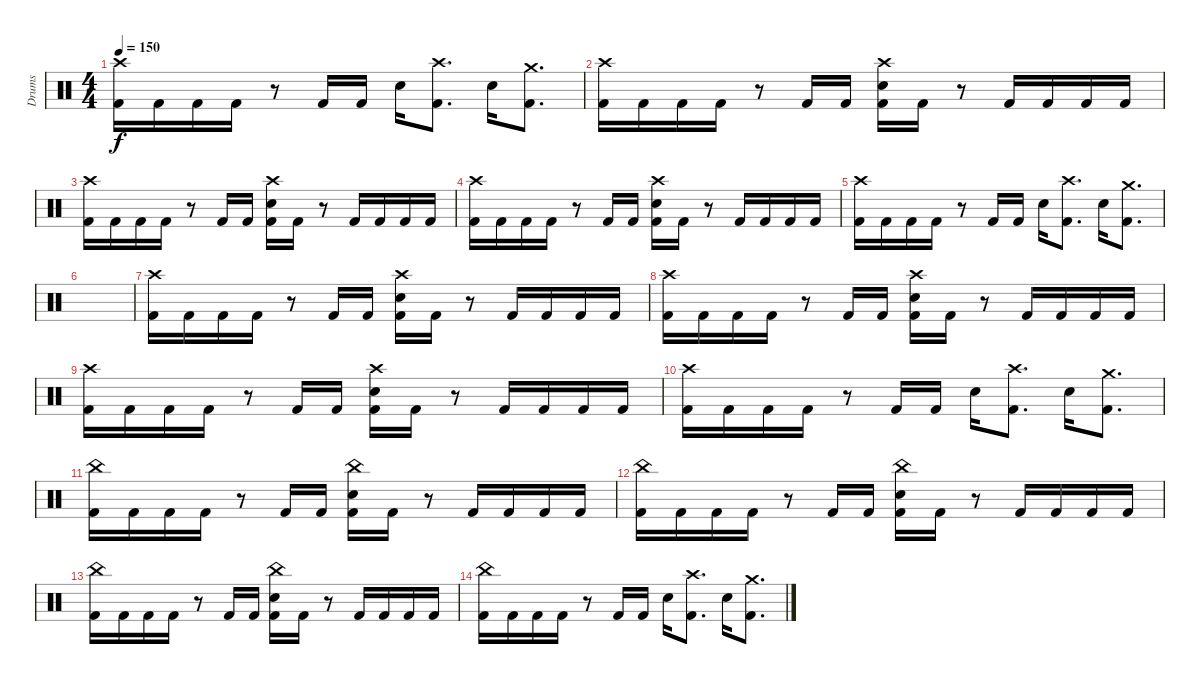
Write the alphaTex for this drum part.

\track ("Drums" "Drums") {instrument percussion}
\staff {score}
\articulation defaults
\ts (4 4)
\tempo 150
\clef neutral
\ks c
("Crash high (hit)" "Kick (hit) 2").16{dy f} "Kick (hit) 2".16 "Kick (hit) 2".16 "Kick (hit) 2".16 r.8 "Kick (hit) 2".16 "Kick (hit) 2".16 "Snare (hit) 2".16 ("Crash high (hit)" "Kick (hit) 2").8{d} "Snare (hit) 2".16 ("Crash medium (hit)" "Kick (hit) 2").8{d} |
("Crash high (hit)" "Kick (hit) 2").16 "Kick (hit) 2".16 "Kick (hit) 2".16 "Kick (hit) 2".16 r.8 "Kick (hit) 2".16 "Kick (hit) 2".16 ("Crash high (hit)" "Snare (hit) 2" "Kick (hit) 2").16 "Kick (hit) 2".16 r.8 "Kick (hit) 2".16 "Kick (hit) 2".16 "Kick (hit) 2".16 "Kick (hit) 2".16 |
("Crash high (hit)" "Kick (hit) 2").16 "Kick (hit) 2".16 "Kick (hit) 2".16 "Kick (hit) 2".16 r.8 "Kick (hit) 2".16 "Kick (hit) 2".16 ("Crash high (hit)" "Snare (hit) 2" "Kick (hit) 2").16 "Kick (hit) 2".16 r.8 "Kick (hit) 2".16 "Kick (hit) 2".16 "Kick (hit) 2".16 "Kick (hit) 2".16 |
("Crash high (hit)" "Kick (hit) 2").16 "Kick (hit) 2".16 "Kick (hit) 2".16 "Kick (hit) 2".16 r.8 "Kick (hit) 2".16 "Kick (hit) 2".16 ("Crash high (hit)" "Snare (hit) 2" "Kick (hit) 2").16 "Kick (hit) 2".16 r.8 "Kick (hit) 2".16 "Kick (hit) 2".16 "Kick (hit) 2".16 "Kick (hit) 2".16 |
("Crash high (hit)" "Kick (hit) 2").16 "Kick (hit) 2".16 "Kick (hit) 2".16 "Kick (hit) 2".16 r.8 "Kick (hit) 2".16 "Kick (hit) 2".16 "Snare (hit) 2".16 ("Crash high (hit)" "Kick (hit) 2").8{d} "Snare (hit) 2".16 ("Crash medium (hit)" "Kick (hit) 2").8{d} |
|
("Crash high (hit)" "Kick (hit) 2").16 "Kick (hit) 2".16 "Kick (hit) 2".16 "Kick (hit) 2".16 r.8 "Kick (hit) 2".16 "Kick (hit) 2".16 ("Crash high (hit)" "Snare (hit) 2" "Kick (hit) 2").16 "Kick (hit) 2".16 r.8 "Kick (hit) 2".16 "Kick (hit) 2".16 "Kick (hit) 2".16 "Kick (hit) 2".16 |
("Crash high (hit)" "Kick (hit) 2").16 "Kick (hit) 2".16 "Kick (hit) 2".16 "Kick (hit) 2".16 r.8 "Kick (hit) 2".16 "Kick (hit) 2".16 ("Crash high (hit)" "Snare (hit) 2" "Kick (hit) 2").16 "Kick (hit) 2".16 r.8 "Kick (hit) 2".16 "Kick (hit) 2".16 "Kick (hit) 2".16 "Kick (hit) 2".16 |
("Crash high (hit)" "Kick (hit) 2").16 "Kick (hit) 2".16 "Kick (hit) 2".16 "Kick (hit) 2".16 r.8 "Kick (hit) 2".16 "Kick (hit) 2".16 ("Crash high (hit)" "Snare (hit) 2" "Kick (hit) 2").16 "Kick (hit) 2".16 r.8 "Kick (hit) 2".16 "Kick (hit) 2".16 "Kick (hit) 2".16 "Kick (hit) 2".16 |
("Crash high (hit)" "Kick (hit) 2").16 "Kick (hit) 2".16 "Kick (hit) 2".16 "Kick (hit) 2".16 r.8 "Kick (hit) 2".16 "Kick (hit) 2".16 "Snare (hit) 2".16 ("Crash high (hit)" "Kick (hit) 2").8{d} "Snare (hit) 2".16 ("Crash medium (hit)" "Kick (hit) 2").8{d} |
("China (hit)" "Kick (hit) 2").16 "Kick (hit) 2".16 "Kick (hit) 2".16 "Kick (hit) 2".16 r.8 "Kick (hit) 2".16 "Kick (hit) 2".16 ("China (hit)" "Snare (hit) 2" "Kick (hit) 2").16 "Kick (hit) 2".16 r.8 "Kick (hit) 2".16 "Kick (hit) 2".16 "Kick (hit) 2".16 "Kick (hit) 2".16 |
("China (hit)" "Kick (hit) 2").16 "Kick (hit) 2".16 "Kick (hit) 2".16 "Kick (hit) 2".16 r.8 "Kick (hit) 2".16 "Kick (hit) 2".16 ("China (hit)" "Snare (hit) 2" "Kick (hit) 2").16 "Kick (hit) 2".16 r.8 "Kick (hit) 2".16 "Kick (hit) 2".16 "Kick (hit) 2".16 "Kick (hit) 2".16 |
("China (hit)" "Kick (hit) 2").16 "Kick (hit) 2".16 "Kick (hit) 2".16 "Kick (hit) 2".16 r.8 "Kick (hit) 2".16 "Kick (hit) 2".16 ("China (hit)" "Snare (hit) 2" "Kick (hit) 2").16 "Kick (hit) 2".16 r.8 "Kick (hit) 2".16 "Kick (hit) 2".16 "Kick (hit) 2".16 "Kick (hit) 2".16 |
("China (hit)" "Kick (hit) 2").16 "Kick (hit) 2".16 "Kick (hit) 2".16 "Kick (hit) 2".16 r.8 "Kick (hit) 2".16 "Kick (hit) 2".16 "Snare (hit) 2".16 ("Crash high (hit)" "Kick (hit) 2").8{d} "Snare (hit) 2".16 ("Crash medium (hit)" "Kick (hit) 2").8{d}
